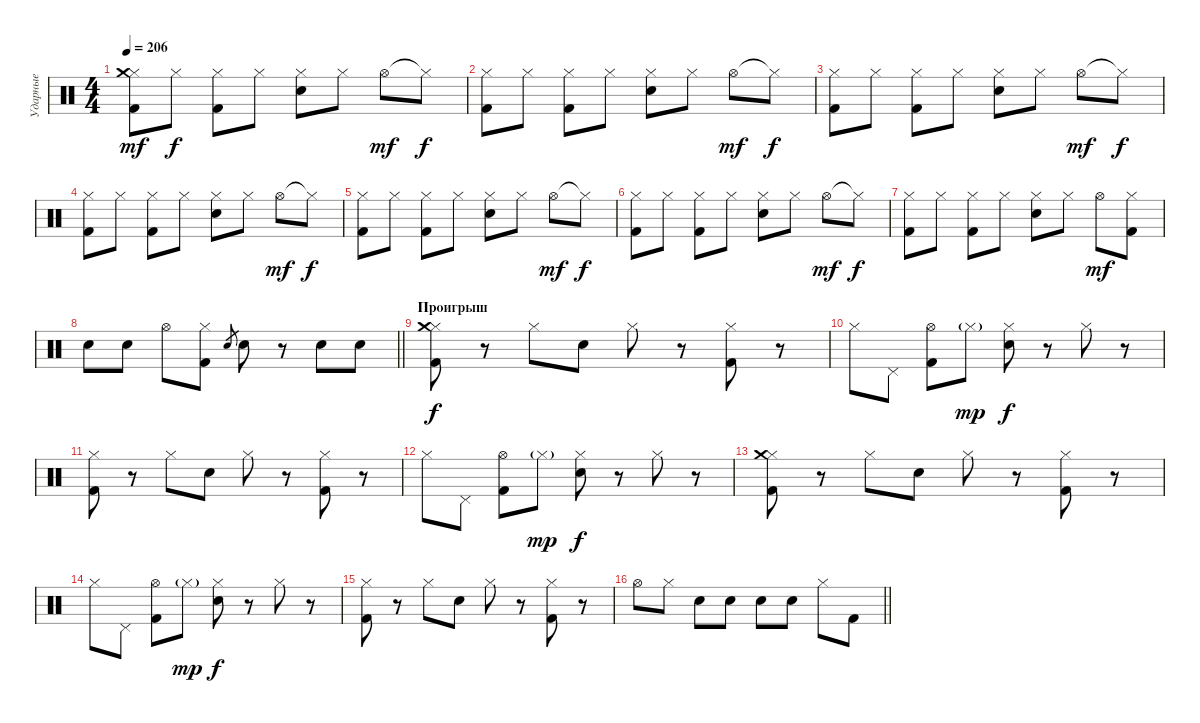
\track ("Ударные" "Ударные") {instrument percussion}
\staff {score}
\articulation defaults
\ts (4 4)
\tempo 206
\clef neutral
\ks c
("Hi-Hat (closed)" "Kick (hit) 2" "Crash medium (hit)").8{dy mf} "Hi-Hat (closed)".8{dy f} ("Hi-Hat (closed)" "Kick (hit) 2").8 "Hi-Hat (closed)".8 ("Hi-Hat (closed)" "Electric Snare (hit)").8 "Hi-Hat (closed)".8 "Hi-Hat (open)".8{dy mf} "Hi-Hat (closed)"{t}.8{dy f} |
("Hi-Hat (closed)" "Kick (hit) 2").8 "Hi-Hat (closed)".8 ("Hi-Hat (closed)" "Kick (hit) 2").8 "Hi-Hat (closed)".8 ("Hi-Hat (closed)" "Electric Snare (hit)").8 "Hi-Hat (closed)".8 "Hi-Hat (open)".8{dy mf} "Hi-Hat (closed)"{t}.8{dy f} |
("Hi-Hat (closed)" "Kick (hit) 2").8 "Hi-Hat (closed)".8 ("Hi-Hat (closed)" "Kick (hit) 2").8 "Hi-Hat (closed)".8 ("Hi-Hat (closed)" "Electric Snare (hit)").8 "Hi-Hat (closed)".8 "Hi-Hat (open)".8{dy mf} "Hi-Hat (closed)"{t}.8{dy f} |
("Hi-Hat (closed)" "Kick (hit) 2").8 "Hi-Hat (closed)".8 ("Hi-Hat (closed)" "Kick (hit) 2").8 "Hi-Hat (closed)".8 ("Hi-Hat (closed)" "Electric Snare (hit)").8 "Hi-Hat (closed)".8 "Hi-Hat (open)".8{dy mf} "Hi-Hat (closed)"{t}.8{dy f} |
("Hi-Hat (closed)" "Kick (hit) 2").8 "Hi-Hat (closed)".8 ("Hi-Hat (closed)" "Kick (hit) 2").8 "Hi-Hat (closed)".8 ("Hi-Hat (closed)" "Electric Snare (hit)").8 "Hi-Hat (closed)".8 "Hi-Hat (open)".8{dy mf} "Hi-Hat (closed)"{t}.8{dy f} |
("Hi-Hat (closed)" "Kick (hit) 2").8 "Hi-Hat (closed)".8 ("Hi-Hat (closed)" "Kick (hit) 2").8 "Hi-Hat (closed)".8 ("Hi-Hat (closed)" "Electric Snare (hit)").8 "Hi-Hat (closed)".8 "Hi-Hat (open)".8{dy mf} "Hi-Hat (closed)"{t}.8{dy f} |
("Hi-Hat (closed)" "Kick (hit) 2").8 "Hi-Hat (closed)".8 ("Hi-Hat (closed)" "Kick (hit) 2").8 "Hi-Hat (closed)".8 ("Hi-Hat (closed)" "Electric Snare (hit)").8 "Hi-Hat (closed)".8 "Hi-Hat (open)".8{dy mf} ("Hi-Hat (closed)" "Kick (hit) 2").8 |
\barLineRight lightlight "Electric Snare (hit)".8 "Electric Snare (hit)".8 "Hi-Hat (open)".8
("Hi-Hat (closed)" "Kick (hit) 2").8 "Electric Snare (hit)".8{gr} "Electric Snare (hit)".8 r.8 "Electric Snare (hit)".8 "Electric Snare (hit)".8 |
\section ("" "Проигрыш")
("Hi-Hat (closed)" "Kick (hit) 2" "Crash medium (hit)").8{dy f} r.8 "Hi-Hat (closed)".8 "Electric Snare (hit)".8 "Hi-Hat (closed)".8 r.8 ("Hi-Hat (closed)" "Kick (hit) 2").8 r.8 |
"Hi-Hat (closed)".8 "Pedal Hi-Hat (hit)".8 ("Hi-Hat (open)" "Kick (hit) 2").8 "Hi-Hat (closed)"{g}.8{dy mp} ("Hi-Hat (closed)" "Electric Snare (hit)").8{dy f} r.8 "Hi-Hat (closed)".8 r.8 |
("Hi-Hat (closed)" "Kick (hit) 2").8 r.8 "Hi-Hat (closed)".8 "Electric Snare (hit)".8 "Hi-Hat (closed)".8 r.8 ("Hi-Hat (closed)" "Kick (hit) 2").8 r.8 |
"Hi-Hat (closed)".8 "Pedal Hi-Hat (hit)".8 ("Hi-Hat (open)" "Kick (hit) 2").8 "Hi-Hat (closed)"{g}.8{dy mp} ("Hi-Hat (closed)" "Electric Snare (hit)").8{dy f} r.8 "Hi-Hat (closed)".8 r.8 |
("Hi-Hat (closed)" "Kick (hit) 2" "Crash medium (hit)").8 r.8 "Hi-Hat (closed)".8 "Electric Snare (hit)".8 "Hi-Hat (closed)".8 r.8 ("Hi-Hat (closed)" "Kick (hit) 2").8 r.8 |
"Hi-Hat (closed)".8 "Pedal Hi-Hat (hit)".8 ("Hi-Hat (open)" "Kick (hit) 2").8 "Hi-Hat (closed)"{g}.8{dy mp} ("Hi-Hat (closed)" "Electric Snare (hit)").8{dy f} r.8 "Hi-Hat (closed)".8 r.8 |
("Hi-Hat (closed)" "Kick (hit) 2").8 r.8 "Hi-Hat (closed)".8 "Electric Snare (hit)".8 "Hi-Hat (closed)".8 r.8 ("Hi-Hat (closed)" "Kick (hit) 2").8 r.8 |
\barLineRight lightlight "Hi-Hat (open)".8 "Hi-Hat (closed)".8 "Electric Snare (hit)".8 "Electric Snare (hit)".8 "Electric Snare (hit)".8 "Electric Snare (hit)".8 "Hi-Hat (closed)".8 "Kick (hit) 2".8
